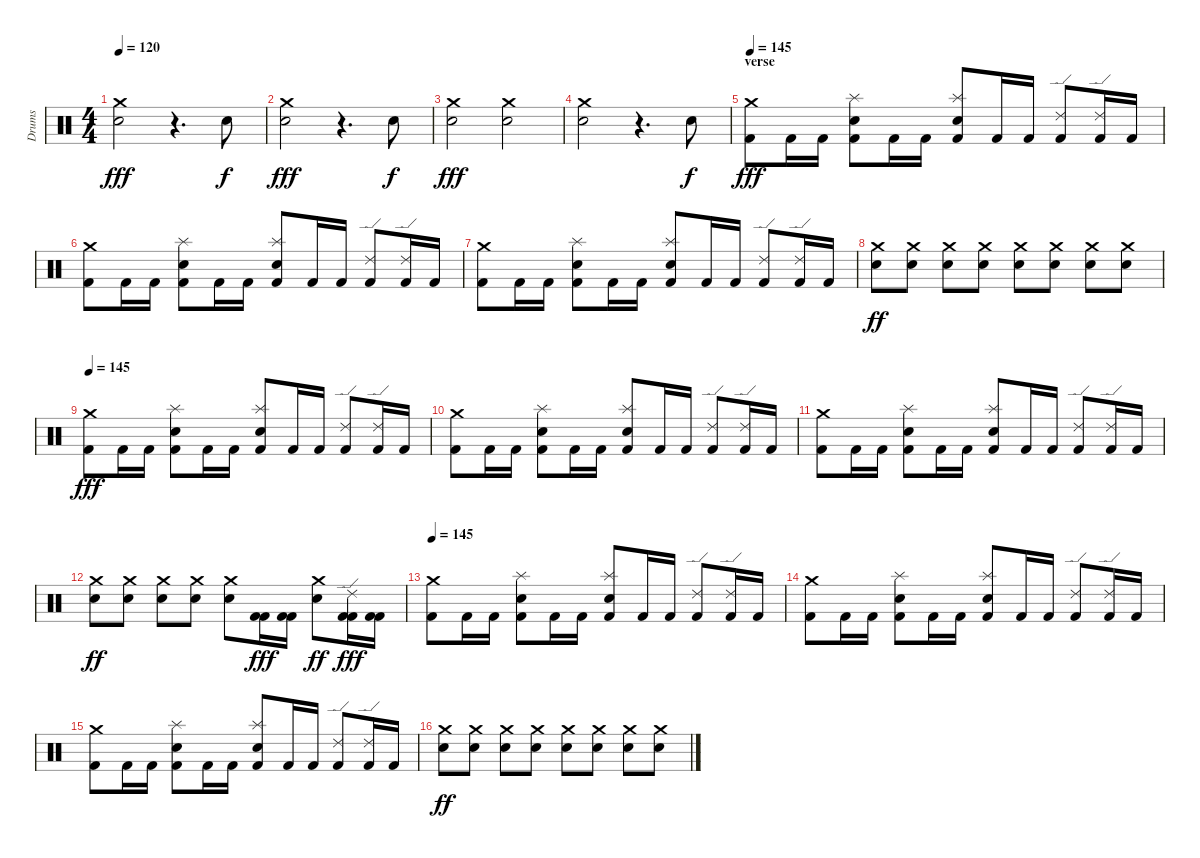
\track ("Drums" "Drums") {instrument percussion}
\staff {score}
\articulation defaults
\ts (4 4)
\tempo 120
\clef neutral
\ks c
("Electric Snare (hit)" "Crash medium (hit)").2{dy fff} r.4{d} "Electric Snare (hit)".8{dy f} |
("Electric Snare (hit)" "Crash medium (hit)").2{dy fff} r.4{d} "Electric Snare (hit)".8{dy f} |
("Electric Snare (hit)" "Crash medium (hit)").2{dy fff} ("Electric Snare (hit)" "Crash medium (hit)").2 |
("Electric Snare (hit)" "Crash medium (hit)").2 r.4{d} "Electric Snare (hit)".8{dy f} |
\section ("" "verse")
\tempo 145
("Crash medium (hit)" "Kick (hit) 2").8{dy fff} "Kick (hit) 2".16 "Kick (hit) 2".16 ("Electric Snare (hit)" "Kick (hit) 2" "Splash (hit)").8{balance 0} "Kick (hit) 2".16{balance 8} "Kick (hit) 2".16 ("Snare (hit) 2" "Kick (hit) 2" "Splash (hit)").8{balance 16} "Kick (hit) 2".16{balance 8} "Kick (hit) 2".16 ("Ride (edge) 2" "Kick (hit) 2").8 ("Ride (edge) 2" "Kick (hit) 2").16 "Kick (hit) 2".16 |
("Crash medium (hit)" "Kick (hit) 2").8 "Kick (hit) 2".16 "Kick (hit) 2".16 ("Electric Snare (hit)" "Kick (hit) 2" "Splash (hit)").8{balance 0} "Kick (hit) 2".16{balance 8} "Kick (hit) 2".16 ("Snare (hit) 2" "Kick (hit) 2" "Splash (hit)").8{balance 16} "Kick (hit) 2".16{balance 8} "Kick (hit) 2".16 ("Ride (edge) 2" "Kick (hit) 2").8 ("Ride (edge) 2" "Kick (hit) 2").16 "Kick (hit) 2".16 |
("Crash medium (hit)" "Kick (hit) 2").8 "Kick (hit) 2".16 "Kick (hit) 2".16 ("Electric Snare (hit)" "Kick (hit) 2" "Splash (hit)").8{balance 0} "Kick (hit) 2".16{balance 8} "Kick (hit) 2".16 ("Snare (hit) 2" "Kick (hit) 2" "Splash (hit)").8{balance 16} "Kick (hit) 2".16{balance 8} "Kick (hit) 2".16 ("Ride (edge) 2" "Kick (hit) 2").8 ("Ride (edge) 2" "Kick (hit) 2").16 "Kick (hit) 2".16 |
("Crash medium (hit)" "Electric Snare (hit)").8{dy ff} ("Crash medium (hit)" "Electric Snare (hit)").8 ("Crash medium (hit)" "Electric Snare (hit)").8 ("Crash medium (hit)" "Electric Snare (hit)").8 ("Crash medium (hit)" "Electric Snare (hit)").8 ("Crash medium (hit)" "Electric Snare (hit)").8 ("Crash medium (hit)" "Electric Snare (hit)").8 ("Crash medium (hit)" "Electric Snare (hit)").8 |
\tempo 145
("Crash medium (hit)" "Kick (hit) 2").8{dy fff} "Kick (hit) 2".16 "Kick (hit) 2".16 ("Electric Snare (hit)" "Kick (hit) 2" "Splash (hit)").8{balance 0} "Kick (hit) 2".16{balance 8} "Kick (hit) 2".16 ("Snare (hit) 2" "Kick (hit) 2" "Splash (hit)").8{balance 16} "Kick (hit) 2".16{balance 8} "Kick (hit) 2".16 ("Ride (edge) 2" "Kick (hit) 2").8 ("Ride (edge) 2" "Kick (hit) 2").16 "Kick (hit) 2".16 |
("Crash medium (hit)" "Kick (hit) 2").8 "Kick (hit) 2".16 "Kick (hit) 2".16 ("Electric Snare (hit)" "Kick (hit) 2" "Splash (hit)").8{balance 0} "Kick (hit) 2".16{balance 8} "Kick (hit) 2".16 ("Snare (hit) 2" "Kick (hit) 2" "Splash (hit)").8{balance 16} "Kick (hit) 2".16{balance 8} "Kick (hit) 2".16 ("Ride (edge) 2" "Kick (hit) 2").8 ("Ride (edge) 2" "Kick (hit) 2").16 "Kick (hit) 2".16 |
("Crash medium (hit)" "Kick (hit) 2").8 "Kick (hit) 2".16 "Kick (hit) 2".16 ("Electric Snare (hit)" "Kick (hit) 2" "Splash (hit)").8{balance 0} "Kick (hit) 2".16{balance 8} "Kick (hit) 2".16 ("Snare (hit) 2" "Kick (hit) 2" "Splash (hit)").8{balance 16} "Kick (hit) 2".16{balance 8} "Kick (hit) 2".16 ("Ride (edge) 2" "Kick (hit) 2").8 ("Ride (edge) 2" "Kick (hit) 2").16 "Kick (hit) 2".16 |
("Crash medium (hit)" "Electric Snare (hit)").8{dy ff} ("Crash medium (hit)" "Electric Snare (hit)").8 ("Crash medium (hit)" "Electric Snare (hit)").8 ("Crash medium (hit)" "Electric Snare (hit)").8 ("Crash medium (hit)" "Electric Snare (hit)").8 ("Kick (hit) 2" "Kick (hit) 2").16{dy fff} ("Kick (hit) 2" "Kick (hit) 2").16 ("Crash medium (hit)" "Electric Snare (hit)").8{dy ff} ("Ride (edge) 2" "Kick (hit) 2" "Kick (hit) 2").16{dy fff} ("Kick (hit) 2" "Kick (hit) 2").16 |
\tempo 145
("Crash medium (hit)" "Kick (hit) 2").8 "Kick (hit) 2".16 "Kick (hit) 2".16 ("Electric Snare (hit)" "Kick (hit) 2" "Splash (hit)").8{balance 0} "Kick (hit) 2".16{balance 8} "Kick (hit) 2".16 ("Snare (hit) 2" "Kick (hit) 2" "Splash (hit)").8{balance 16} "Kick (hit) 2".16{balance 8} "Kick (hit) 2".16 ("Ride (edge) 2" "Kick (hit) 2").8 ("Ride (edge) 2" "Kick (hit) 2").16 "Kick (hit) 2".16 |
("Crash medium (hit)" "Kick (hit) 2").8 "Kick (hit) 2".16 "Kick (hit) 2".16 ("Electric Snare (hit)" "Kick (hit) 2" "Splash (hit)").8{balance 0} "Kick (hit) 2".16{balance 8} "Kick (hit) 2".16 ("Snare (hit) 2" "Kick (hit) 2" "Splash (hit)").8{balance 16} "Kick (hit) 2".16{balance 8} "Kick (hit) 2".16 ("Ride (edge) 2" "Kick (hit) 2").8 ("Ride (edge) 2" "Kick (hit) 2").16 "Kick (hit) 2".16 |
("Crash medium (hit)" "Kick (hit) 2").8 "Kick (hit) 2".16 "Kick (hit) 2".16 ("Electric Snare (hit)" "Kick (hit) 2" "Splash (hit)").8{balance 0} "Kick (hit) 2".16{balance 8} "Kick (hit) 2".16 ("Snare (hit) 2" "Kick (hit) 2" "Splash (hit)").8{balance 16} "Kick (hit) 2".16{balance 8} "Kick (hit) 2".16 ("Ride (edge) 2" "Kick (hit) 2").8 ("Ride (edge) 2" "Kick (hit) 2").16 "Kick (hit) 2".16 |
("Crash medium (hit)" "Electric Snare (hit)").8{dy ff} ("Crash medium (hit)" "Electric Snare (hit)").8 ("Crash medium (hit)" "Electric Snare (hit)").8 ("Crash medium (hit)" "Electric Snare (hit)").8 ("Crash medium (hit)" "Electric Snare (hit)").8 ("Crash medium (hit)" "Electric Snare (hit)").8 ("Crash medium (hit)" "Electric Snare (hit)").8 ("Crash medium (hit)" "Electric Snare (hit)").8
